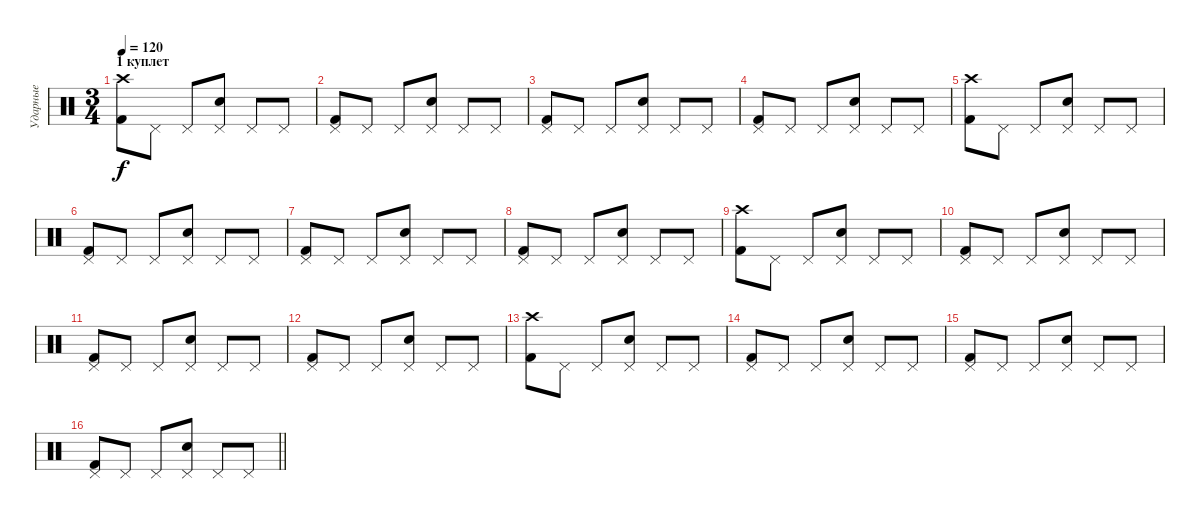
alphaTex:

\track ("Ударные" "Ударные") {instrument percussion}
\staff {score}
\articulation defaults
\ts (3 4)
\section ("" "1 куплет")
\tempo 120
\clef neutral
\ks c
("Crash high (hit)" "Kick (hit) 2").8{dy f} "Pedal Hi-Hat (hit)".8 "Pedal Hi-Hat (hit)".8 ("Pedal Hi-Hat (hit)" "Snare (hit) 2").8 "Pedal Hi-Hat (hit)".8 "Pedal Hi-Hat (hit)".8 |
("Pedal Hi-Hat (hit)" "Kick (hit) 2").8 "Pedal Hi-Hat (hit)".8 "Pedal Hi-Hat (hit)".8 ("Pedal Hi-Hat (hit)" "Snare (hit) 2").8 "Pedal Hi-Hat (hit)".8 "Pedal Hi-Hat (hit)".8 |
("Pedal Hi-Hat (hit)" "Kick (hit) 2").8 "Pedal Hi-Hat (hit)".8 "Pedal Hi-Hat (hit)".8 ("Pedal Hi-Hat (hit)" "Snare (hit) 2").8 "Pedal Hi-Hat (hit)".8 "Pedal Hi-Hat (hit)".8 |
("Pedal Hi-Hat (hit)" "Kick (hit) 2").8 "Pedal Hi-Hat (hit)".8 "Pedal Hi-Hat (hit)".8 ("Pedal Hi-Hat (hit)" "Snare (hit) 2").8 "Pedal Hi-Hat (hit)".8 "Pedal Hi-Hat (hit)".8 |
("Crash high (hit)" "Kick (hit) 2").8 "Pedal Hi-Hat (hit)".8 "Pedal Hi-Hat (hit)".8 ("Pedal Hi-Hat (hit)" "Snare (hit) 2").8 "Pedal Hi-Hat (hit)".8 "Pedal Hi-Hat (hit)".8 |
("Pedal Hi-Hat (hit)" "Kick (hit) 2").8 "Pedal Hi-Hat (hit)".8 "Pedal Hi-Hat (hit)".8 ("Pedal Hi-Hat (hit)" "Snare (hit) 2").8 "Pedal Hi-Hat (hit)".8 "Pedal Hi-Hat (hit)".8 |
("Pedal Hi-Hat (hit)" "Kick (hit) 2").8 "Pedal Hi-Hat (hit)".8 "Pedal Hi-Hat (hit)".8 ("Pedal Hi-Hat (hit)" "Snare (hit) 2").8 "Pedal Hi-Hat (hit)".8 "Pedal Hi-Hat (hit)".8 |
("Pedal Hi-Hat (hit)" "Kick (hit) 2").8 "Pedal Hi-Hat (hit)".8 "Pedal Hi-Hat (hit)".8 ("Pedal Hi-Hat (hit)" "Snare (hit) 2").8 "Pedal Hi-Hat (hit)".8 "Pedal Hi-Hat (hit)".8 |
("Crash high (hit)" "Kick (hit) 2").8 "Pedal Hi-Hat (hit)".8 "Pedal Hi-Hat (hit)".8 ("Pedal Hi-Hat (hit)" "Snare (hit) 2").8 "Pedal Hi-Hat (hit)".8 "Pedal Hi-Hat (hit)".8 |
("Pedal Hi-Hat (hit)" "Kick (hit) 2").8 "Pedal Hi-Hat (hit)".8 "Pedal Hi-Hat (hit)".8 ("Pedal Hi-Hat (hit)" "Snare (hit) 2").8 "Pedal Hi-Hat (hit)".8 "Pedal Hi-Hat (hit)".8 |
("Pedal Hi-Hat (hit)" "Kick (hit) 2").8 "Pedal Hi-Hat (hit)".8 "Pedal Hi-Hat (hit)".8 ("Pedal Hi-Hat (hit)" "Snare (hit) 2").8 "Pedal Hi-Hat (hit)".8 "Pedal Hi-Hat (hit)".8 |
("Pedal Hi-Hat (hit)" "Kick (hit) 2").8 "Pedal Hi-Hat (hit)".8 "Pedal Hi-Hat (hit)".8 ("Pedal Hi-Hat (hit)" "Snare (hit) 2").8 "Pedal Hi-Hat (hit)".8 "Pedal Hi-Hat (hit)".8 |
("Crash high (hit)" "Kick (hit) 2").8 "Pedal Hi-Hat (hit)".8 "Pedal Hi-Hat (hit)".8 ("Pedal Hi-Hat (hit)" "Snare (hit) 2").8 "Pedal Hi-Hat (hit)".8 "Pedal Hi-Hat (hit)".8 |
("Pedal Hi-Hat (hit)" "Kick (hit) 2").8 "Pedal Hi-Hat (hit)".8 "Pedal Hi-Hat (hit)".8 ("Pedal Hi-Hat (hit)" "Snare (hit) 2").8 "Pedal Hi-Hat (hit)".8 "Pedal Hi-Hat (hit)".8 |
("Pedal Hi-Hat (hit)" "Kick (hit) 2").8 "Pedal Hi-Hat (hit)".8 "Pedal Hi-Hat (hit)".8 ("Pedal Hi-Hat (hit)" "Snare (hit) 2").8 "Pedal Hi-Hat (hit)".8 "Pedal Hi-Hat (hit)".8 |
\barLineRight lightlight
("Pedal Hi-Hat (hit)" "Kick (hit) 2").8 "Pedal Hi-Hat (hit)".8 "Pedal Hi-Hat (hit)".8 ("Pedal Hi-Hat (hit)" "Snare (hit) 2").8 "Pedal Hi-Hat (hit)".8 "Pedal Hi-Hat (hit)".8
